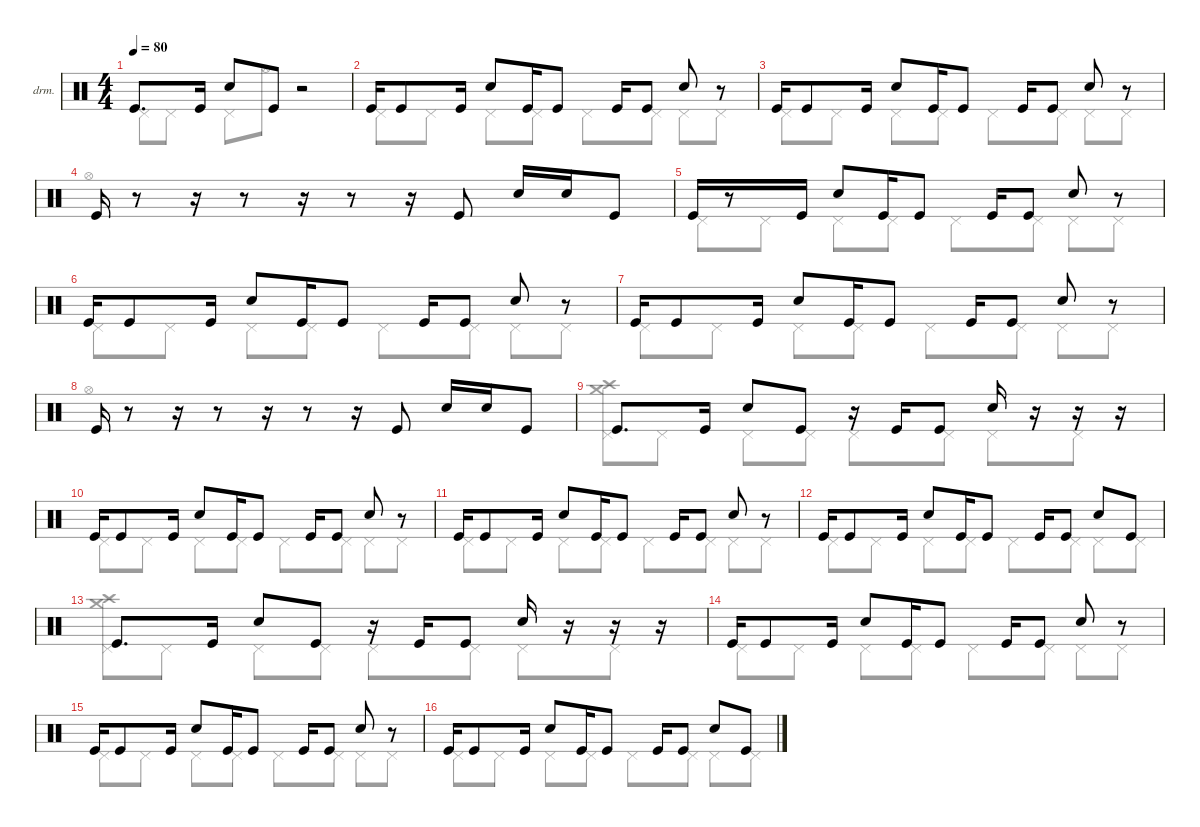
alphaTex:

\defaultSystemsLayout 4
\hideDynamics
\bracketExtendMode nobrackets
\firstSystemTrackNameOrientation horizontal
\otherSystemsTrackNameOrientation horizontal
\track ("Drumkit" "drm.") {instrument percussion}
\staff {score}
\articulation defaults
\voice
\ts (4 4)
\tempo 80
\clef neutral
\ks c "Kick (hit)".8{d dy mf} "Kick (hit)".16 "Snare (hit) 2".8 "Kick (hit)".8
r.2 |
"Kick (hit)".16 "Kick (hit)".8 "Kick (hit)".16 "Snare (hit) 2".8 "Kick (hit)".16 "Kick (hit)".8 "Kick (hit)".16 "Kick (hit)".8 "Snare (hit) 2".8 r.8 |
"Kick (hit)".16 "Kick (hit)".8 "Kick (hit)".16 "Snare (hit) 2".8 "Kick (hit)".16 "Kick (hit)".8 "Kick (hit)".16 "Kick (hit)".8 "Snare (hit) 2".8 r.8 |
"Kick (hit)".16 r.8 r.16 r.8 r.16 r.8 r.16 "Kick (hit)".8 "Snare (hit) 2".16 "Snare (hit) 2".16 "Kick (hit)".8 |
"Kick (hit)".16 r.8 "Kick (hit)".16 "Snare (hit) 2".8 "Kick (hit)".16 "Kick (hit)".8 "Kick (hit)".16 "Kick (hit)".8 "Snare (hit) 2".8 r.8 |
"Kick (hit)".16 "Kick (hit)".8 "Kick (hit)".16 "Snare (hit) 2".8 "Kick (hit)".16 "Kick (hit)".8 "Kick (hit)".16 "Kick (hit)".8 "Snare (hit) 2".8 r.8 |
"Kick (hit)".16 "Kick (hit)".8 "Kick (hit)".16 "Snare (hit) 2".8 "Kick (hit)".16 "Kick (hit)".8 "Kick (hit)".16 "Kick (hit)".8 "Snare (hit) 2".8 r.8 |
"Kick (hit)".16 r.8 r.16 r.8 r.16 r.8 r.16 "Kick (hit)".8 "Snare (hit) 2".16 "Snare (hit) 2".16 "Kick (hit)".8 |
"Kick (hit)".8{d} "Kick (hit)".16 "Snare (hit) 2".8 "Kick (hit)".8 r.16 "Kick (hit)".16 "Kick (hit)".8 "Snare (hit) 2".16 r.16 r.16 r.16 |
"Kick (hit)".16 "Kick (hit)".8 "Kick (hit)".16 "Snare (hit) 2".8 "Kick (hit)".16 "Kick (hit)".8 "Kick (hit)".16 "Kick (hit)".8 "Snare (hit) 2".8 r.8 |
"Kick (hit)".16 "Kick (hit)".8 "Kick (hit)".16 "Snare (hit) 2".8 "Kick (hit)".16 "Kick (hit)".8 "Kick (hit)".16 "Kick (hit)".8 "Snare (hit) 2".8 r.8 |
"Kick (hit)".16 "Kick (hit)".8 "Kick (hit)".16 "Snare (hit) 2".8 "Kick (hit)".16 "Kick (hit)".8 "Kick (hit)".16 "Kick (hit)".8 "Snare (hit) 2".8 "Kick (hit)".8 |
"Kick (hit)".8{d} "Kick (hit)".16 "Snare (hit) 2".8 "Kick (hit)".8 r.16 "Kick (hit)".16 "Kick (hit)".8 "Snare (hit) 2".16 r.16 r.16 r.16 |
"Kick (hit)".16 "Kick (hit)".8 "Kick (hit)".16 "Snare (hit) 2".8 "Kick (hit)".16 "Kick (hit)".8 "Kick (hit)".16 "Kick (hit)".8 "Snare (hit) 2".8 r.8 |
"Kick (hit)".16 "Kick (hit)".8 "Kick (hit)".16 "Snare (hit) 2".8 "Kick (hit)".16 "Kick (hit)".8 "Kick (hit)".16 "Kick (hit)".8 "Snare (hit) 2".8 r.8 |
"Kick (hit)".16 "Kick (hit)".8 "Kick (hit)".16 "Snare (hit) 2".8 "Kick (hit)".16 "Kick (hit)".8 "Kick (hit)".16 "Kick (hit)".8 "Snare (hit) 2".8 "Kick (hit)".8
\voice
\clef neutral
\ottava regular
\simile none
\ks c "Pedal Hi-Hat (hit)".8{dy mf} "Pedal Hi-Hat (hit)".8 "Pedal Hi-Hat (hit)".8 "Hi-Hat (open)".8
r.2 |
"Pedal Hi-Hat (hit)".8 "Pedal Hi-Hat (hit)".8 "Pedal Hi-Hat (hit)".8 "Pedal Hi-Hat (hit)".8 "Pedal Hi-Hat (hit)".8 "Pedal Hi-Hat (hit)".8 "Pedal Hi-Hat (hit)".8 "Pedal Hi-Hat (hit)".8 |
"Pedal Hi-Hat (hit)".8 "Pedal Hi-Hat (hit)".8 "Pedal Hi-Hat (hit)".8 "Pedal Hi-Hat (hit)".8 "Pedal Hi-Hat (hit)".8 "Pedal Hi-Hat (hit)".8 "Pedal Hi-Hat (hit)".8 "Pedal Hi-Hat (hit)".8 |
"Hi-Hat (open)".1 |
"Pedal Hi-Hat (hit)".8 "Pedal Hi-Hat (hit)".8 "Pedal Hi-Hat (hit)".8 "Pedal Hi-Hat (hit)".8 "Pedal Hi-Hat (hit)".8 "Pedal Hi-Hat (hit)".8 "Pedal Hi-Hat (hit)".8 "Pedal Hi-Hat (hit)".8 |
"Pedal Hi-Hat (hit)".8 "Pedal Hi-Hat (hit)".8 "Pedal Hi-Hat (hit)".8 "Pedal Hi-Hat (hit)".8 "Pedal Hi-Hat (hit)".8 "Pedal Hi-Hat (hit)".8 "Pedal Hi-Hat (hit)".8 "Pedal Hi-Hat (hit)".8 |
"Pedal Hi-Hat (hit)".8 "Pedal Hi-Hat (hit)".8 "Pedal Hi-Hat (hit)".8 "Pedal Hi-Hat (hit)".8 "Pedal Hi-Hat (hit)".8 "Pedal Hi-Hat (hit)".8 "Pedal Hi-Hat (hit)".8 "Pedal Hi-Hat (hit)".8 |
"Hi-Hat (open)".1 |
("Pedal Hi-Hat (hit)" "Crash medium (hit)" "Crash high (hit)").8 "Pedal Hi-Hat (hit)".8 "Pedal Hi-Hat (hit)".8 "Pedal Hi-Hat (hit)".8 "Pedal Hi-Hat (hit)".8 "Pedal Hi-Hat (hit)".8 "Pedal Hi-Hat (hit)".8 "Pedal Hi-Hat (hit)".8 |
"Pedal Hi-Hat (hit)".8 "Pedal Hi-Hat (hit)".8 "Pedal Hi-Hat (hit)".8 "Pedal Hi-Hat (hit)".8 "Pedal Hi-Hat (hit)".8 "Pedal Hi-Hat (hit)".8 "Pedal Hi-Hat (hit)".8 "Pedal Hi-Hat (hit)".8 |
"Pedal Hi-Hat (hit)".8 "Pedal Hi-Hat (hit)".8 "Pedal Hi-Hat (hit)".8 "Pedal Hi-Hat (hit)".8 "Pedal Hi-Hat (hit)".8 "Pedal Hi-Hat (hit)".8 "Pedal Hi-Hat (hit)".8 "Pedal Hi-Hat (hit)".8 |
"Pedal Hi-Hat (hit)".8 "Pedal Hi-Hat (hit)".8 "Pedal Hi-Hat (hit)".8 "Pedal Hi-Hat (hit)".8 "Pedal Hi-Hat (hit)".8 "Pedal Hi-Hat (hit)".8 "Pedal Hi-Hat (hit)".8 "Pedal Hi-Hat (hit)".8 |
("Pedal Hi-Hat (hit)" "Crash medium (hit)" "Crash high (hit)").8 "Pedal Hi-Hat (hit)".8 "Pedal Hi-Hat (hit)".8 "Pedal Hi-Hat (hit)".8 "Pedal Hi-Hat (hit)".8 "Pedal Hi-Hat (hit)".8 "Pedal Hi-Hat (hit)".8 "Pedal Hi-Hat (hit)".8 |
"Pedal Hi-Hat (hit)".8 "Pedal Hi-Hat (hit)".8 "Pedal Hi-Hat (hit)".8 "Pedal Hi-Hat (hit)".8 "Pedal Hi-Hat (hit)".8 "Pedal Hi-Hat (hit)".8 "Pedal Hi-Hat (hit)".8 "Pedal Hi-Hat (hit)".8 |
"Pedal Hi-Hat (hit)".8 "Pedal Hi-Hat (hit)".8 "Pedal Hi-Hat (hit)".8 "Pedal Hi-Hat (hit)".8 "Pedal Hi-Hat (hit)".8 "Pedal Hi-Hat (hit)".8 "Pedal Hi-Hat (hit)".8 "Pedal Hi-Hat (hit)".8 |
"Pedal Hi-Hat (hit)".8 "Pedal Hi-Hat (hit)".8 "Pedal Hi-Hat (hit)".8 "Pedal Hi-Hat (hit)".8 "Pedal Hi-Hat (hit)".8 "Pedal Hi-Hat (hit)".8 "Pedal Hi-Hat (hit)".8 "Pedal Hi-Hat (hit)".8
